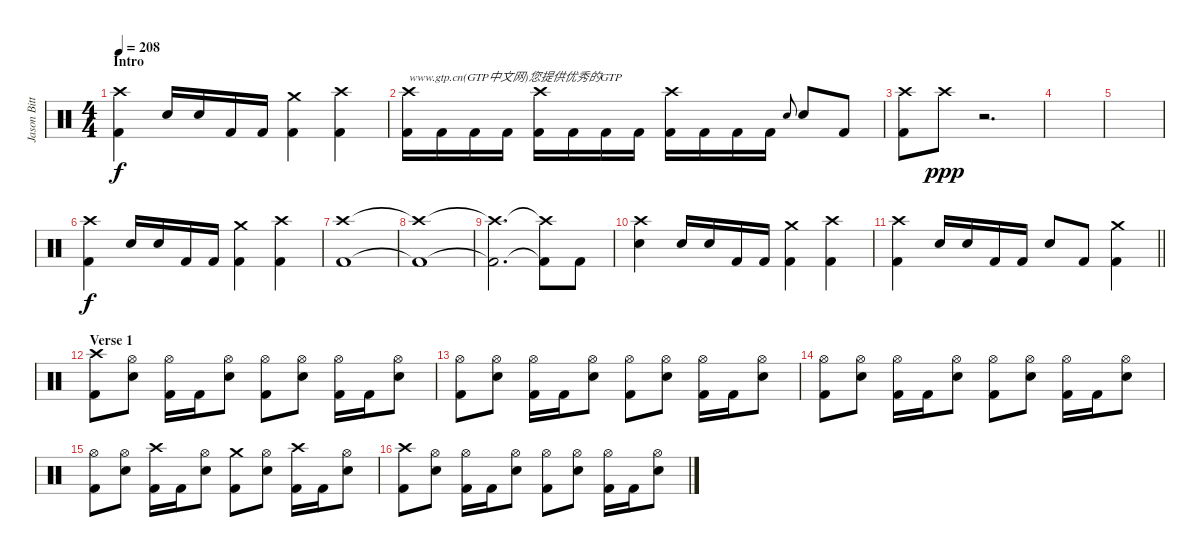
\track ("Jason Bittner" "Jason Bitt") {instrument percussion}
\staff {score}
\articulation defaults
\ts (4 4)
\section ("" "Intro")
\tempo 208
\clef neutral
\ks c
("Crash high (hit)" "Kick (hit) 2").4{dy f} "Electric Snare (hit)".16 "Electric Snare (hit)".16 "Kick (hit) 2".16 "Kick (hit) 2".16 ("Crash medium (hit)" "Kick (hit) 2").4 ("Crash high (hit)" "Kick (hit) 2").4 |
("Crash high (hit)" "Kick (hit) 2").16{txt "www.gtp.cn(GTP中文网)您提供优秀的GTP"} "Kick (hit) 2".16 "Kick (hit) 2".16 "Kick (hit) 2".16 ("Crash high (hit)" "Kick (hit) 2").16 "Kick (hit) 2".16 "Kick (hit) 2".16 "Kick (hit) 2".16 ("Crash high (hit)" "Kick (hit) 2").16 "Kick (hit) 2".16 "Kick (hit) 2".16 "Kick (hit) 2".16 "Electric Snare (hit)".8{gr onbeat} "Electric Snare (hit)".8 "Kick (hit) 2".8 |
("Crash high (hit)" "Kick (hit) 2").8 "Crash high (hit)".8{dy ppp} r.2{d} |
|
|
("Crash high (hit)" "Kick (hit) 2").4{dy f} "Electric Snare (hit)".16 "Electric Snare (hit)".16 "Kick (hit) 2".16 "Kick (hit) 2".16 ("Crash medium (hit)" "Kick (hit) 2").4 ("Crash high (hit)" "Kick (hit) 2").4 |
("Crash high (hit)" "Kick (hit) 2").1 |
("Crash high (hit)"{t} "Kick (hit) 2"{t}).1 |
("Crash high (hit)"{t} "Kick (hit) 2"{t}).2{d} ("Crash high (hit)"{t} "Kick (hit) 2"{t}).8 "Kick (hit) 2".8 |
("Crash high (hit)" "Electric Snare (hit)").4 "Electric Snare (hit)".16 "Electric Snare (hit)".16 "Kick (hit) 2".16 "Kick (hit) 2".16 ("Crash medium (hit)" "Kick (hit) 2").4 ("Crash high (hit)" "Kick (hit) 2").4 |
\barLineRight lightlight
("Crash high (hit)" "Kick (hit) 2").4 "Electric Snare (hit)".16 "Electric Snare (hit)".16 "Kick (hit) 2".16 "Kick (hit) 2".16 "Electric Snare (hit)".8 "Kick (hit) 2".8 ("Crash medium (hit)" "Kick (hit) 2").4 |
\section ("" "Verse 1")
("Crash high (hit)" "Kick (hit) 2").8 ("Hi-Hat (open)" "Electric Snare (hit)").8 ("Hi-Hat (open)" "Kick (hit) 2").16 "Kick (hit) 2".16 ("Hi-Hat (open)" "Electric Snare (hit)").8 ("Hi-Hat (open)" "Kick (hit) 2").8 ("Hi-Hat (open)" "Electric Snare (hit)").8 ("Hi-Hat (open)" "Kick (hit) 2").16 "Kick (hit) 2".16 ("Hi-Hat (open)" "Electric Snare (hit)").8 |
("Hi-Hat (open)" "Kick (hit) 2").8 ("Hi-Hat (open)" "Electric Snare (hit)").8 ("Hi-Hat (open)" "Kick (hit) 2").16 "Kick (hit) 2".16 ("Hi-Hat (open)" "Electric Snare (hit)").8 ("Hi-Hat (open)" "Kick (hit) 2").8 ("Hi-Hat (open)" "Electric Snare (hit)").8 ("Hi-Hat (open)" "Kick (hit) 2").16 "Kick (hit) 2".16 ("Hi-Hat (open)" "Electric Snare (hit)").8 |
("Hi-Hat (open)" "Kick (hit) 2").8 ("Hi-Hat (open)" "Electric Snare (hit)").8 ("Hi-Hat (open)" "Kick (hit) 2").16 "Kick (hit) 2".16 ("Hi-Hat (open)" "Electric Snare (hit)").8 ("Hi-Hat (open)" "Kick (hit) 2").8 ("Hi-Hat (open)" "Electric Snare (hit)").8 ("Hi-Hat (open)" "Kick (hit) 2").16 "Kick (hit) 2".16 ("Hi-Hat (open)" "Electric Snare (hit)").8 |
("Hi-Hat (open)" "Kick (hit) 2").8 ("Hi-Hat (open)" "Electric Snare (hit)").8 ("Crash high (hit)" "Kick (hit) 2").16 "Kick (hit) 2".16 ("Hi-Hat (open)" "Electric Snare (hit)").8 ("Crash medium (hit)" "Kick (hit) 2").8 ("Hi-Hat (open)" "Electric Snare (hit)").8 ("Crash high (hit)" "Kick (hit) 2").16 "Kick (hit) 2".16 ("Hi-Hat (open)" "Electric Snare (hit)").8 |
("Crash high (hit)" "Kick (hit) 2").8 ("Hi-Hat (open)" "Electric Snare (hit)").8 ("Hi-Hat (open)" "Kick (hit) 2").16 "Kick (hit) 2".16 ("Hi-Hat (open)" "Electric Snare (hit)").8 ("Hi-Hat (open)" "Kick (hit) 2").8 ("Hi-Hat (open)" "Electric Snare (hit)").8 ("Hi-Hat (open)" "Kick (hit) 2").16 "Kick (hit) 2".16 ("Hi-Hat (open)" "Electric Snare (hit)").8
